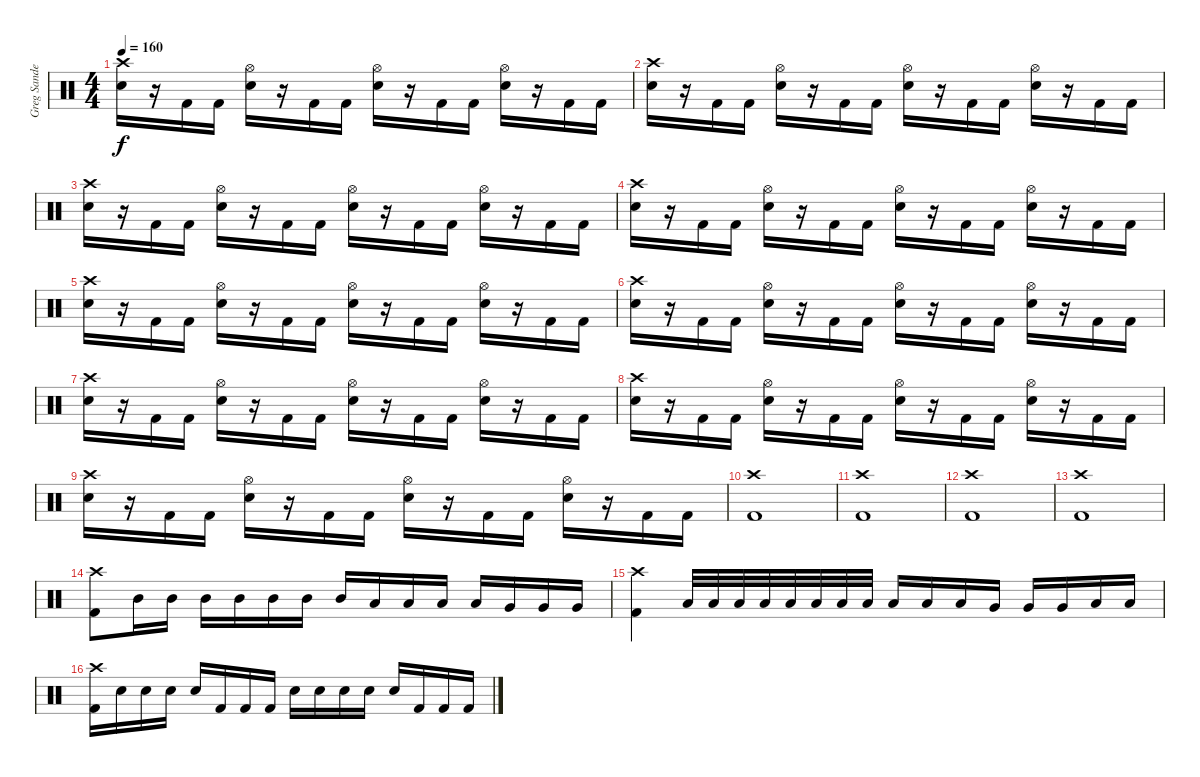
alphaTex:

\track ("Greg Sanderson" "Greg Sande") {instrument percussion}
\staff {score}
\articulation defaults
\ts (4 4)
\tempo 160
\clef neutral
\ks c
("Crash high (hit)" "Snare (hit) 2").16{dy f} r.16 "Kick (hit) 2".16 "Kick (hit) 2".16 ("Hi-Hat (open)" "Snare (hit) 2").16 r.16 "Kick (hit) 2".16 "Kick (hit) 2".16 ("Hi-Hat (open)" "Snare (hit) 2").16 r.16 "Kick (hit) 2".16 "Kick (hit) 2".16 ("Hi-Hat (open)" "Snare (hit) 2").16 r.16 "Kick (hit) 2".16 "Kick (hit) 2".16 |
("Crash high (hit)" "Snare (hit) 2").16 r.16 "Kick (hit) 2".16 "Kick (hit) 2".16 ("Hi-Hat (open)" "Snare (hit) 2").16 r.16 "Kick (hit) 2".16 "Kick (hit) 2".16 ("Hi-Hat (open)" "Snare (hit) 2").16 r.16 "Kick (hit) 2".16 "Kick (hit) 2".16 ("Hi-Hat (open)" "Snare (hit) 2").16 r.16 "Kick (hit) 2".16 "Kick (hit) 2".16 |
("Crash high (hit)" "Snare (hit) 2").16 r.16 "Kick (hit) 2".16 "Kick (hit) 2".16 ("Hi-Hat (open)" "Snare (hit) 2").16 r.16 "Kick (hit) 2".16 "Kick (hit) 2".16 ("Hi-Hat (open)" "Snare (hit) 2").16 r.16 "Kick (hit) 2".16 "Kick (hit) 2".16 ("Hi-Hat (open)" "Snare (hit) 2").16 r.16 "Kick (hit) 2".16 "Kick (hit) 2".16 |
("Crash high (hit)" "Snare (hit) 2").16 r.16 "Kick (hit) 2".16 "Kick (hit) 2".16 ("Hi-Hat (open)" "Snare (hit) 2").16 r.16 "Kick (hit) 2".16 "Kick (hit) 2".16 ("Hi-Hat (open)" "Snare (hit) 2").16 r.16 "Kick (hit) 2".16 "Kick (hit) 2".16 ("Hi-Hat (open)" "Snare (hit) 2").16 r.16 "Kick (hit) 2".16 "Kick (hit) 2".16 |
("Crash high (hit)" "Snare (hit) 2").16 r.16 "Kick (hit) 2".16 "Kick (hit) 2".16 ("Hi-Hat (open)" "Snare (hit) 2").16 r.16 "Kick (hit) 2".16 "Kick (hit) 2".16 ("Hi-Hat (open)" "Snare (hit) 2").16 r.16 "Kick (hit) 2".16 "Kick (hit) 2".16 ("Hi-Hat (open)" "Snare (hit) 2").16 r.16 "Kick (hit) 2".16 "Kick (hit) 2".16 |
("Crash high (hit)" "Snare (hit) 2").16 r.16 "Kick (hit) 2".16 "Kick (hit) 2".16 ("Hi-Hat (open)" "Snare (hit) 2").16 r.16 "Kick (hit) 2".16 "Kick (hit) 2".16 ("Hi-Hat (open)" "Snare (hit) 2").16 r.16 "Kick (hit) 2".16 "Kick (hit) 2".16 ("Hi-Hat (open)" "Snare (hit) 2").16 r.16 "Kick (hit) 2".16 "Kick (hit) 2".16 |
("Crash high (hit)" "Snare (hit) 2").16 r.16 "Kick (hit) 2".16 "Kick (hit) 2".16 ("Hi-Hat (open)" "Snare (hit) 2").16 r.16 "Kick (hit) 2".16 "Kick (hit) 2".16 ("Hi-Hat (open)" "Snare (hit) 2").16 r.16 "Kick (hit) 2".16 "Kick (hit) 2".16 ("Hi-Hat (open)" "Snare (hit) 2").16 r.16 "Kick (hit) 2".16 "Kick (hit) 2".16 |
("Crash high (hit)" "Snare (hit) 2").16 r.16 "Kick (hit) 2".16 "Kick (hit) 2".16 ("Hi-Hat (open)" "Snare (hit) 2").16 r.16 "Kick (hit) 2".16 "Kick (hit) 2".16 ("Hi-Hat (open)" "Snare (hit) 2").16 r.16 "Kick (hit) 2".16 "Kick (hit) 2".16 ("Hi-Hat (open)" "Snare (hit) 2").16 r.16 "Kick (hit) 2".16 "Kick (hit) 2".16 |
("Crash high (hit)" "Snare (hit) 2").16 r.16 "Kick (hit) 2".16 "Kick (hit) 2".16 ("Hi-Hat (open)" "Snare (hit) 2").16 r.16 "Kick (hit) 2".16 "Kick (hit) 2".16 ("Hi-Hat (open)" "Snare (hit) 2").16 r.16 "Kick (hit) 2".16 "Kick (hit) 2".16 ("Hi-Hat (open)" "Snare (hit) 2").16 r.16 "Kick (hit) 2".16 "Kick (hit) 2".16 |
("Crash high (hit)" "Kick (hit) 2").1 |
("Crash high (hit)" "Kick (hit) 2").1 |
("Crash high (hit)" "Kick (hit) 2").1 |
("Crash high (hit)" "Kick (hit) 2").1 |
("Crash high (hit)" "Kick (hit) 2").8 "Mid Tom (hit)".16 "Mid Tom (hit)".16 "Mid Tom (hit)".16 "Mid Tom (hit)".16 "Mid Tom (hit)".16 "Mid Tom (hit)".16 "Mid Tom (hit)".16 "Low Tom (hit)".16 "Low Tom (hit)".16 "Low Tom (hit)".16 "Low Tom (hit)".16 "Very Low Tom (hit)".16 "Very Low Tom (hit)".16 "Very Low Tom (hit)".16 |
("Crash high (hit)" "Kick (hit) 2").4 "Low Tom (hit)".32 "Low Tom (hit)".32 "Low Tom (hit)".32 "Low Tom (hit)".32 "Low Tom (hit)".32 "Low Tom (hit)".32 "Low Tom (hit)".32 "Low Tom (hit)".32 "Low Tom (hit)".16 "Low Tom (hit)".16 "Low Tom (hit)".16 "Very Low Tom (hit)".16 "Very Low Tom (hit)".16 "Very Low Tom (hit)".16 "Low Floor Tom (hit)".16 "Low Floor Tom (hit)".16 |
("Crash high (hit)" "Kick (hit) 2").16 "Snare (hit) 2".16 "Snare (hit) 2".16 "Snare (hit) 2".16 "Snare (hit) 2".16 "Kick (hit) 2".16 "Kick (hit) 2".16 "Kick (hit) 2".16 "Snare (hit) 2".16 "Snare (hit) 2".16 "Snare (hit) 2".16 "Snare (hit) 2".16 "Snare (hit) 2".16 "Kick (hit) 2".16 "Kick (hit) 2".16 "Kick (hit) 2".16
